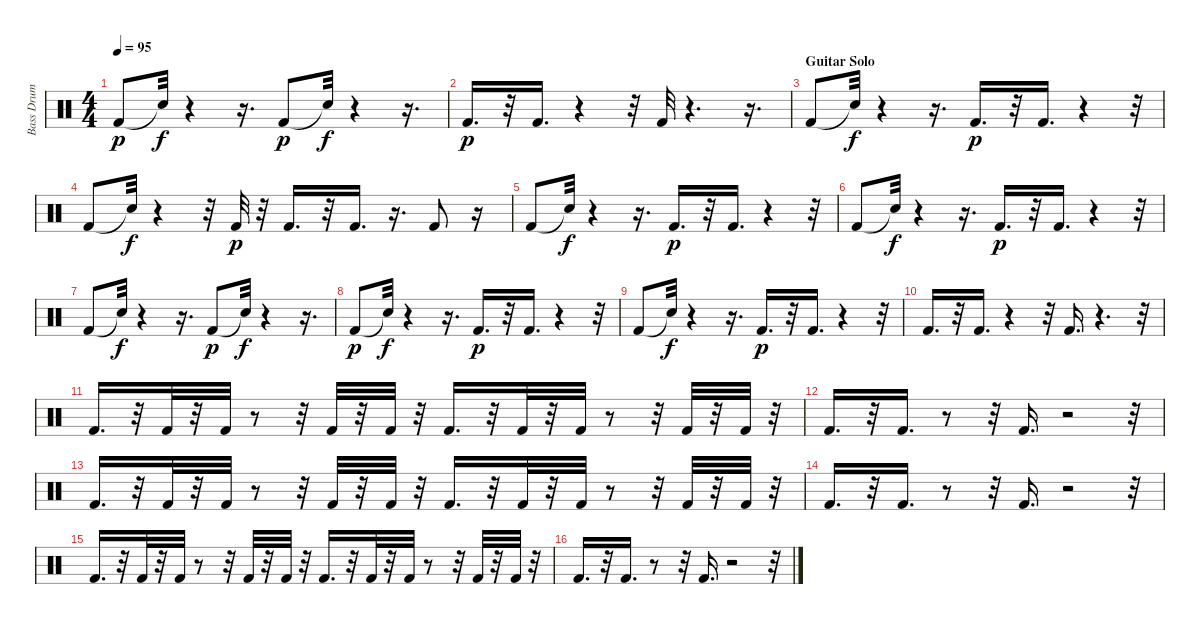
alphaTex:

\track ("Bass Drum" "Bass Drum") {instrument percussion}
\staff {score}
\articulation defaults
\ts (4 4)
\tempo 95
\clef neutral
\ks c "Kick (hit) 2".8{dy p} "Snare (hit)"{t}.32{dy f}
r.4 r.16{d} "Kick (hit) 2".8{dy p} "Snare (hit)"{t}.32{dy f} r.4 r.16{d} |
"Kick (hit) 2".16{d dy p} r.32 "Kick (hit) 2".16{d} r.4 r.32 "Kick (hit) 2".32 r.4{d} r.16{d} |
\section ("" "Guitar Solo")
"Kick (hit) 2".8 "Snare (hit)"{t}.32{dy f} r.4 r.16{d} "Kick (hit) 2".16{d dy p} r.32 "Kick (hit) 2".16{d} r.4 r.32 |
"Kick (hit) 2".8 "Snare (hit)"{t}.32{dy f} r.4 r.32 "Kick (hit) 2".32{dy p} r.32 "Kick (hit) 2".16{d} r.32 "Kick (hit) 2".16{d} r.16{d} "Kick (hit) 2".8 r.16 |
"Kick (hit) 2".8 "Snare (hit)"{t}.32{dy f} r.4 r.16{d} "Kick (hit) 2".16{d dy p} r.32 "Kick (hit) 2".16{d} r.4 r.32 |
"Kick (hit) 2".8 "Snare (hit)"{t}.32{dy f} r.4 r.16{d} "Kick (hit) 2".16{d dy p} r.32 "Kick (hit) 2".16{d} r.4 r.32 |
"Kick (hit) 2".8 "Snare (hit)"{t}.32{dy f} r.4 r.16{d} "Kick (hit) 2".8{dy p} "Snare (hit)"{t}.32{dy f} r.4 r.16{d} |
"Kick (hit) 2".8{dy p} "Snare (hit)"{t}.32{dy f} r.4 r.16{d} "Kick (hit) 2".16{d dy p} r.32 "Kick (hit) 2".16{d} r.4 r.32 |
"Kick (hit) 2".8 "Snare (hit)"{t}.32{dy f} r.4 r.16{d} "Kick (hit) 2".16{d dy p} r.32 "Kick (hit) 2".16{d} r.4 r.32 |
"Kick (hit) 2".16{d} r.32 "Kick (hit) 2".16{d} r.4 r.32 "Kick (hit) 2".16{d} r.4{d} r.32 |
"Kick (hit) 2".16{d} r.32 "Kick (hit) 2".32 r.32 "Kick (hit) 2".32 r.8 r.32 "Kick (hit) 2".32 r.32 "Kick (hit) 2".32 r.32 "Kick (hit) 2".16{d} r.32 "Kick (hit) 2".32 r.32 "Kick (hit) 2".32 r.8 r.32 "Kick (hit) 2".32 r.32 "Kick (hit) 2".32 r.32 |
"Kick (hit) 2".16{d} r.32 "Kick (hit) 2".16{d} r.8 r.32 "Kick (hit) 2".16{d} r.2 r.32 |
"Kick (hit) 2".16{d} r.32 "Kick (hit) 2".32 r.32 "Kick (hit) 2".32 r.8 r.32 "Kick (hit) 2".32 r.32 "Kick (hit) 2".32 r.32 "Kick (hit) 2".16{d} r.32 "Kick (hit) 2".32 r.32 "Kick (hit) 2".32 r.8 r.32 "Kick (hit) 2".32 r.32 "Kick (hit) 2".32 r.32 |
"Kick (hit) 2".16{d} r.32 "Kick (hit) 2".16{d} r.8 r.32 "Kick (hit) 2".16{d} r.2 r.32 |
"Kick (hit) 2".16{d} r.32 "Kick (hit) 2".32 r.32 "Kick (hit) 2".32 r.8 r.32 "Kick (hit) 2".32 r.32 "Kick (hit) 2".32 r.32 "Kick (hit) 2".16{d} r.32 "Kick (hit) 2".32 r.32 "Kick (hit) 2".32 r.8 r.32 "Kick (hit) 2".32 r.32 "Kick (hit) 2".32 r.32 |
"Kick (hit) 2".16{d} r.32 "Kick (hit) 2".16{d} r.8 r.32 "Kick (hit) 2".16{d} r.2 r.32
